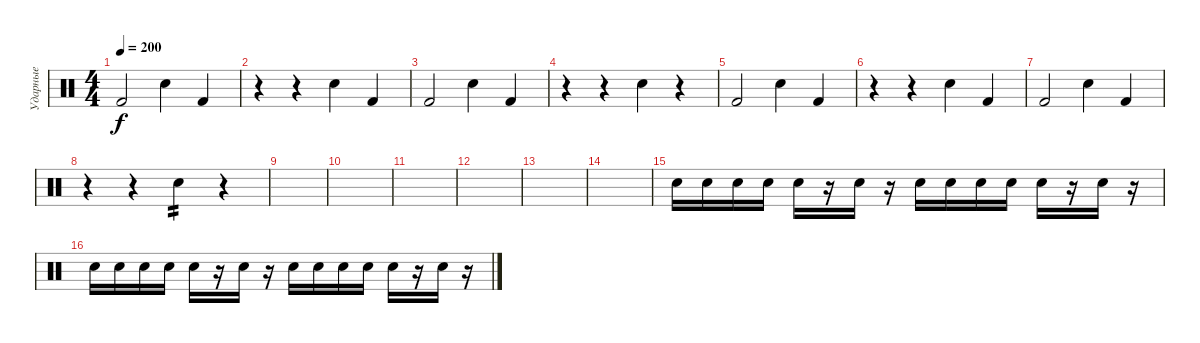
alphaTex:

\track ("Ударные" "Ударные") {instrument percussion}
\staff {score}
\articulation defaults
\ts (4 4)
\tempo 200
\clef neutral
\ks c "Kick (hit) 2".2{dy f} "Snare (hit) 2".4 "Kick (hit) 2".4
|
r.4 r.4 "Snare (hit) 2".4 "Kick (hit) 2".4 |
"Kick (hit) 2".2 "Snare (hit) 2".4 "Kick (hit) 2".4 |
r.4 r.4 "Snare (hit) 2".4 r.4 |
"Kick (hit) 2".2 "Snare (hit) 2".4 "Kick (hit) 2".4 |
r.4 r.4 "Snare (hit) 2".4 "Kick (hit) 2".4 |
"Kick (hit) 2".2 "Snare (hit) 2".4 "Kick (hit) 2".4 |
r.4 r.4 "Snare (hit) 2".4{tp 2} r.4 |
|
|
|
|
|
|
"Snare (hit) 2".16 "Snare (hit) 2".16 "Snare (hit) 2".16 "Snare (hit) 2".16 "Snare (hit) 2".16 r.16 "Snare (hit) 2".16 r.16 "Snare (hit) 2".16 "Snare (hit) 2".16 "Snare (hit) 2".16 "Snare (hit) 2".16 "Snare (hit) 2".16 r.16 "Snare (hit) 2".16 r.16 |
"Snare (hit) 2".16 "Snare (hit) 2".16 "Snare (hit) 2".16 "Snare (hit) 2".16 "Snare (hit) 2".16 r.16 "Snare (hit) 2".16 r.16 "Snare (hit) 2".16 "Snare (hit) 2".16 "Snare (hit) 2".16 "Snare (hit) 2".16 "Snare (hit) 2".16 r.16 "Snare (hit) 2".16 r.16
